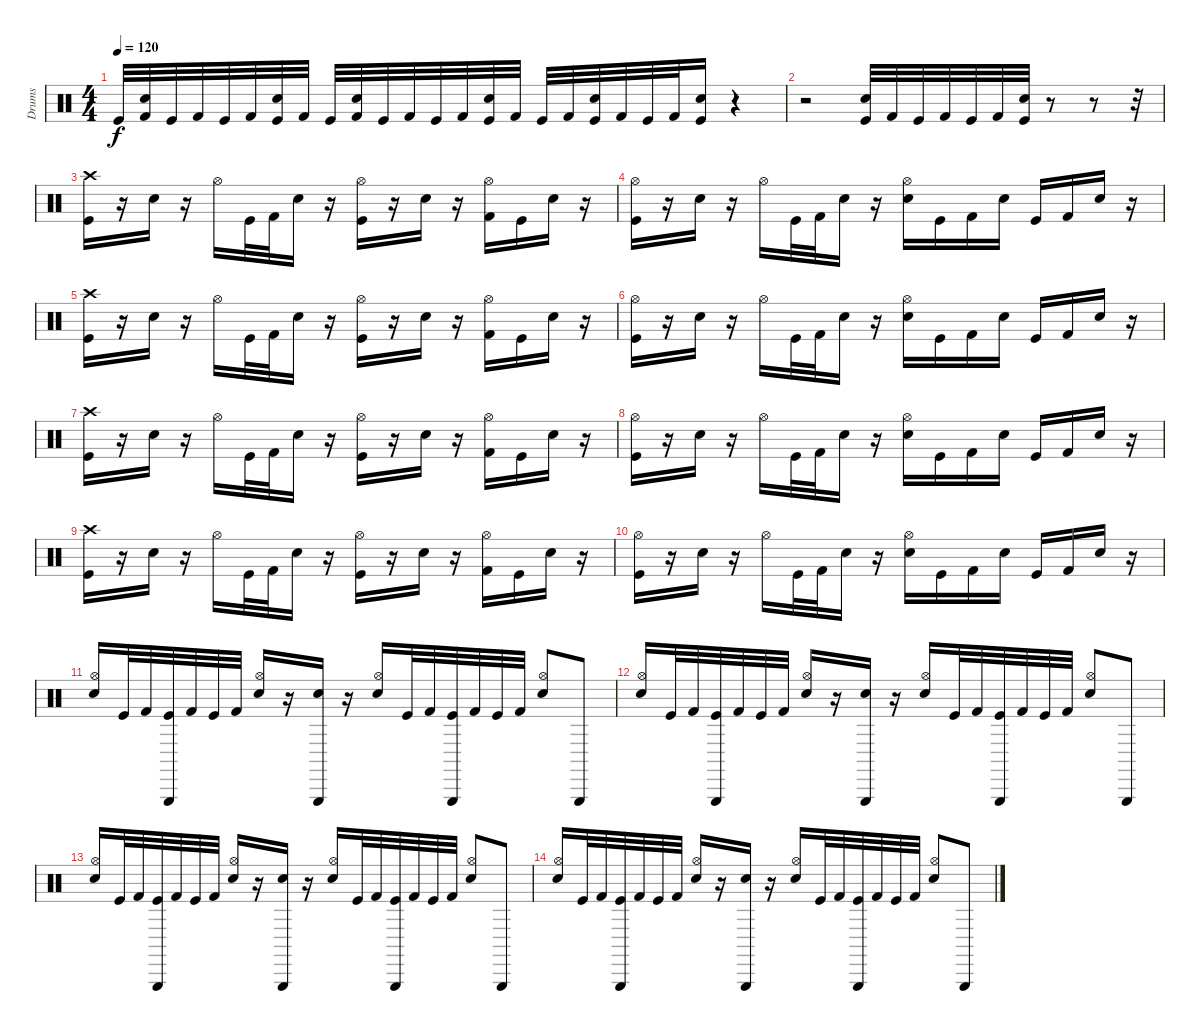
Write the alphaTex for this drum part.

\track ("Drums" "Drums") {instrument percussion}
\staff {score}
\articulation defaults
\ts (4 4)
\tempo 120
\clef neutral
\ks c "Kick (hit)".32{dy f}
("Electric Snare (hit)" "Kick (hit) 2").32 "Kick (hit)".32 "Kick (hit) 2".32 "Kick (hit)".32 "Kick (hit) 2".32 ("Electric Snare (hit)" "Kick (hit)").32 "Kick (hit) 2".32 "Kick (hit)".32 ("Electric Snare (hit)" "Kick (hit) 2").32 "Kick (hit)".32 "Kick (hit) 2".32 "Kick (hit)".32 "Kick (hit) 2".32 ("Electric Snare (hit)" "Kick (hit)").32 "Kick (hit) 2".32 "Kick (hit)".32 "Kick (hit) 2".32 ("Electric Snare (hit)" "Kick (hit)").32 "Kick (hit) 2".32 "Kick (hit)".32 "Kick (hit) 2".32 ("Electric Snare (hit)" "Kick (hit)").16 r.4 |
r.2 ("Electric Snare (hit)" "Kick (hit)").32 "Kick (hit) 2".32 "Kick (hit)".32 "Kick (hit) 2".32 "Kick (hit)".32 "Kick (hit) 2".32 ("Electric Snare (hit)" "Kick (hit)").32 r.8 r.8 r.32 |
("Crash high (hit)" "Kick (hit)").16 r.16 "Electric Snare (hit)".16 r.16 "Hi-Hat (open)".16 "Kick (hit)".32 "Kick (hit) 2".32 "Electric Snare (hit)".16 r.16 ("Hi-Hat (open)" "Kick (hit)").16 r.16 "Electric Snare (hit)".16 r.16 ("Hi-Hat (open)" "Kick (hit) 2").16 "Kick (hit)".16 "Electric Snare (hit)".16 r.16 |
("Hi-Hat (open)" "Kick (hit)").16 r.16 "Electric Snare (hit)".16 r.16 "Hi-Hat (open)".16 "Kick (hit)".32 "Kick (hit) 2".32 "Electric Snare (hit)".16 r.16 ("Hi-Hat (open)" "Electric Snare (hit)").16 "Kick (hit)".16 "Kick (hit) 2".16 "Electric Snare (hit)".16 "Kick (hit)".16 "Kick (hit) 2".16 "Electric Snare (hit)".16 r.16 |
("Crash high (hit)" "Kick (hit)").16 r.16 "Electric Snare (hit)".16 r.16 "Hi-Hat (open)".16 "Kick (hit)".32 "Kick (hit) 2".32 "Electric Snare (hit)".16 r.16 ("Hi-Hat (open)" "Kick (hit)").16 r.16 "Electric Snare (hit)".16 r.16 ("Hi-Hat (open)" "Kick (hit) 2").16 "Kick (hit)".16 "Electric Snare (hit)".16 r.16 |
("Hi-Hat (open)" "Kick (hit)").16 r.16 "Electric Snare (hit)".16 r.16 "Hi-Hat (open)".16 "Kick (hit)".32 "Kick (hit) 2".32 "Electric Snare (hit)".16 r.16 ("Hi-Hat (open)" "Electric Snare (hit)").16 "Kick (hit)".16 "Kick (hit) 2".16 "Electric Snare (hit)".16 "Kick (hit)".16 "Kick (hit) 2".16 "Electric Snare (hit)".16 r.16 |
("Crash high (hit)" "Kick (hit)").16 r.16 "Electric Snare (hit)".16 r.16 "Hi-Hat (open)".16 "Kick (hit)".32 "Kick (hit) 2".32 "Electric Snare (hit)".16 r.16 ("Hi-Hat (open)" "Kick (hit)").16 r.16 "Electric Snare (hit)".16 r.16 ("Hi-Hat (open)" "Kick (hit) 2").16 "Kick (hit)".16 "Electric Snare (hit)".16 r.16 |
("Hi-Hat (open)" "Kick (hit)").16 r.16 "Electric Snare (hit)".16 r.16 "Hi-Hat (open)".16 "Kick (hit)".32 "Kick (hit) 2".32 "Electric Snare (hit)".16 r.16 ("Hi-Hat (open)" "Electric Snare (hit)").16 "Kick (hit)".16 "Kick (hit) 2".16 "Electric Snare (hit)".16 "Kick (hit)".16 "Kick (hit) 2".16 "Electric Snare (hit)".16 r.16 |
("Crash high (hit)" "Kick (hit)").16 r.16 "Electric Snare (hit)".16 r.16 "Hi-Hat (open)".16 "Kick (hit)".32 "Kick (hit) 2".32 "Electric Snare (hit)".16 r.16 ("Hi-Hat (open)" "Kick (hit)").16 r.16 "Electric Snare (hit)".16 r.16 ("Hi-Hat (open)" "Kick (hit) 2").16 "Kick (hit)".16 "Electric Snare (hit)".16 r.16 |
("Hi-Hat (open)" "Kick (hit)").16 r.16 "Electric Snare (hit)".16 r.16 "Hi-Hat (open)".16 "Kick (hit)".32 "Kick (hit) 2".32 "Electric Snare (hit)".16 r.16 ("Hi-Hat (open)" "Electric Snare (hit)").16 "Kick (hit)".16 "Kick (hit) 2".16 "Electric Snare (hit)".16 "Kick (hit)".16 "Kick (hit) 2".16 "Electric Snare (hit)".16 r.16 |
("Hi-Hat (open)" "Electric Snare (hit)").16 "Kick (hit)".32 "Kick (hit) 2".32 ("Triangle (hit)" "Kick (hit)").32 "Kick (hit) 2".32 "Kick (hit)".32 "Kick (hit) 2".32 ("Hi-Hat (open)" "Electric Snare (hit)").16 r.16 ("Triangle (hit)" "Electric Snare (hit)").16 r.16 ("Hi-Hat (open)" "Electric Snare (hit)").16 "Kick (hit)".32 "Kick (hit) 2".32 ("Triangle (hit)" "Kick (hit)").32 "Kick (hit) 2".32 "Kick (hit)".32 "Kick (hit) 2".32 ("Hi-Hat (open)" "Electric Snare (hit)").8 "Triangle (hit)".8 |
("Hi-Hat (open)" "Electric Snare (hit)").16 "Kick (hit)".32 "Kick (hit) 2".32 ("Triangle (hit)" "Kick (hit)").32 "Kick (hit) 2".32 "Kick (hit)".32 "Kick (hit) 2".32 ("Hi-Hat (open)" "Electric Snare (hit)").16 r.16 ("Triangle (hit)" "Electric Snare (hit)").16 r.16 ("Hi-Hat (open)" "Electric Snare (hit)").16 "Kick (hit)".32 "Kick (hit) 2".32 ("Triangle (hit)" "Kick (hit)").32 "Kick (hit) 2".32 "Kick (hit)".32 "Kick (hit) 2".32 ("Hi-Hat (open)" "Electric Snare (hit)").8 "Triangle (hit)".8 |
("Hi-Hat (open)" "Electric Snare (hit)").16 "Kick (hit)".32 "Kick (hit) 2".32 ("Triangle (hit)" "Kick (hit)").32 "Kick (hit) 2".32 "Kick (hit)".32 "Kick (hit) 2".32 ("Hi-Hat (open)" "Electric Snare (hit)").16 r.16 ("Triangle (hit)" "Electric Snare (hit)").16 r.16 ("Hi-Hat (open)" "Electric Snare (hit)").16 "Kick (hit)".32 "Kick (hit) 2".32 ("Triangle (hit)" "Kick (hit)").32 "Kick (hit) 2".32 "Kick (hit)".32 "Kick (hit) 2".32 ("Hi-Hat (open)" "Electric Snare (hit)").8 "Triangle (hit)".8 |
("Hi-Hat (open)" "Electric Snare (hit)").16 "Kick (hit)".32 "Kick (hit) 2".32 ("Triangle (hit)" "Kick (hit)").32 "Kick (hit) 2".32 "Kick (hit)".32 "Kick (hit) 2".32 ("Hi-Hat (open)" "Electric Snare (hit)").16 r.16 ("Triangle (hit)" "Electric Snare (hit)").16 r.16 ("Hi-Hat (open)" "Electric Snare (hit)").16 "Kick (hit)".32 "Kick (hit) 2".32 ("Triangle (hit)" "Kick (hit)").32 "Kick (hit) 2".32 "Kick (hit)".32 "Kick (hit) 2".32 ("Hi-Hat (open)" "Electric Snare (hit)").8 "Triangle (hit)".8
